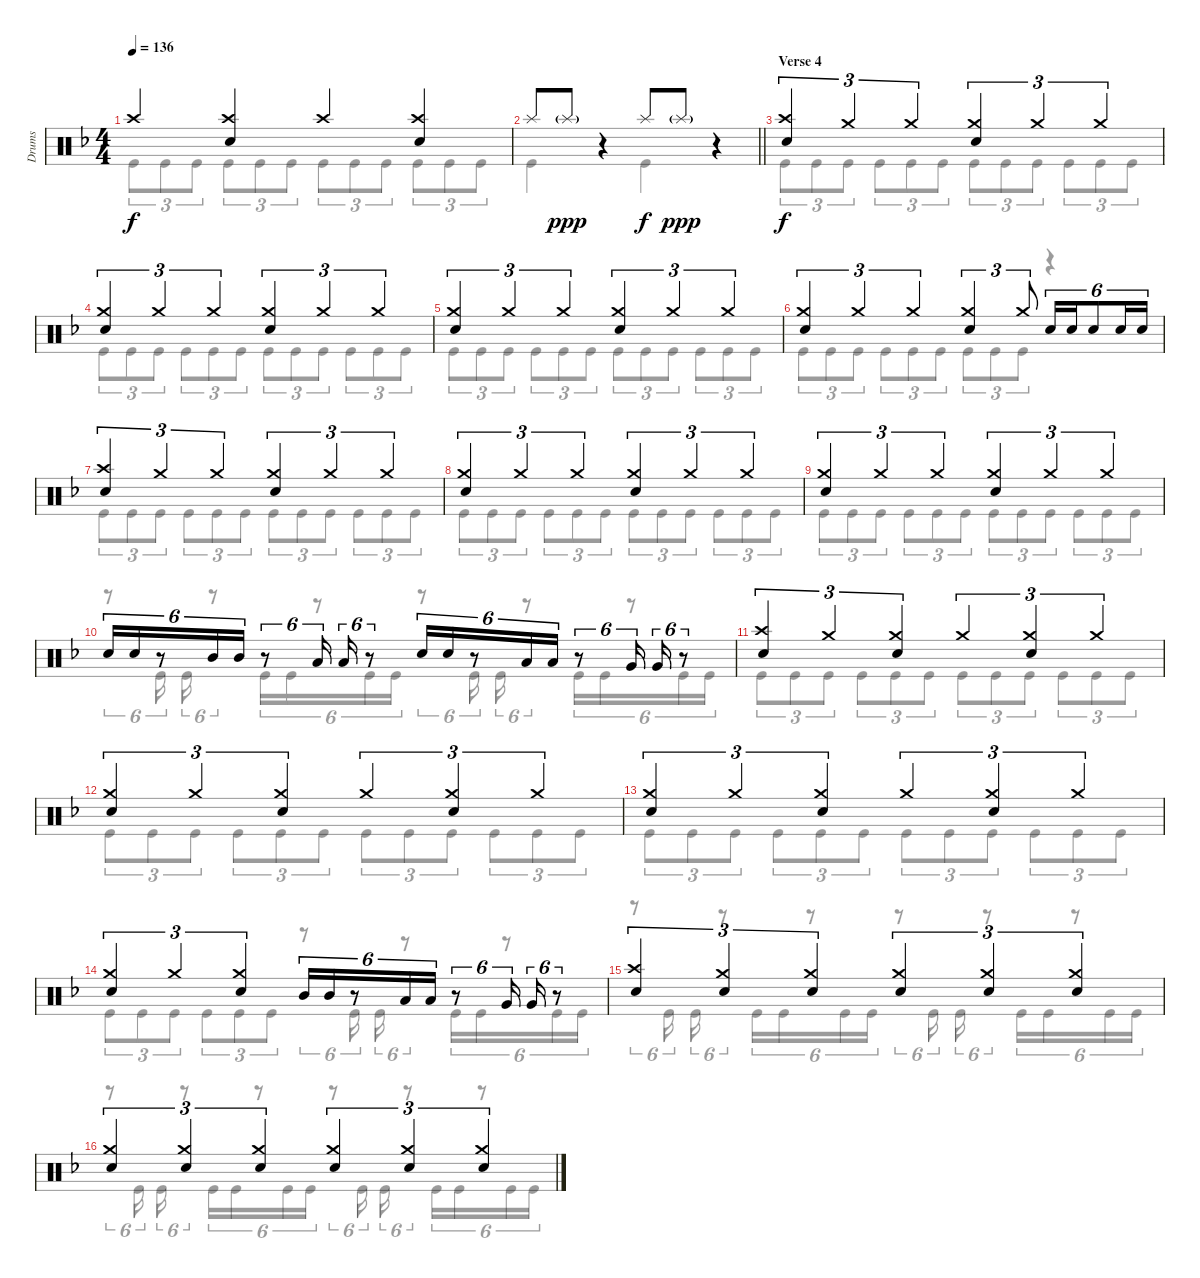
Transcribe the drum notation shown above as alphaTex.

\track ("Drums" "Drums") {instrument percussion}
\staff {score}
\articulation defaults
\voice
\ts (4 4)
\tempo 136
\clef neutral
\ks dminor "Crash high (hit)".4{dy f}
("Crash high (hit)" "Electric Snare (hit)").4 "Crash high (hit)".4 ("Crash high (hit)" "Electric Snare (hit)").4 |
\barLineRight lightlight "Splash (hit)".8 "Splash (hit)"{g}.8{dy ppp}
r.4 "Splash (hit)".8{dy f} "Splash (hit)"{g}.8{dy ppp} r.4 |
\section ("" "Verse 4")
("Crash high (hit)" "Electric Snare (hit)").4{tu (3 2) dy f} "Crash medium (hit)".4{tu (3 2)} "Crash medium (hit)".4{tu (3 2)} ("Crash medium (hit)" "Electric Snare (hit)").4{tu (3 2)} "Crash medium (hit)".4{tu (3 2)} "Crash medium (hit)".4{tu (3 2)} |
("Crash medium (hit)" "Electric Snare (hit)").4{tu (3 2)} "Crash medium (hit)".4{tu (3 2)} "Crash medium (hit)".4{tu (3 2)} ("Crash medium (hit)" "Electric Snare (hit)").4{tu (3 2)} "Crash medium (hit)".4{tu (3 2)} "Crash medium (hit)".4{tu (3 2)} |
("Crash medium (hit)" "Electric Snare (hit)").4{tu (3 2)} "Crash medium (hit)".4{tu (3 2)} "Crash medium (hit)".4{tu (3 2)} ("Crash medium (hit)" "Electric Snare (hit)").4{tu (3 2)} "Crash medium (hit)".4{tu (3 2)} "Crash medium (hit)".4{tu (3 2)} |
("Crash medium (hit)" "Electric Snare (hit)").4{tu (3 2)} "Crash medium (hit)".4{tu (3 2)} "Crash medium (hit)".4{tu (3 2)} ("Crash medium (hit)" "Electric Snare (hit)").4{tu (3 2)} "Crash medium (hit)".8{tu (3 2)} "Electric Snare (hit)".16{tu (6 4)} "Electric Snare (hit)".16{tu (6 4)} "Electric Snare (hit)".8{tu (6 4)} "Electric Snare (hit)".16{tu (6 4)} "Electric Snare (hit)".16{tu (6 4)} |
("Crash high (hit)" "Electric Snare (hit)").4{tu (3 2)} "Crash medium (hit)".4{tu (3 2)} "Crash medium (hit)".4{tu (3 2)} ("Crash medium (hit)" "Electric Snare (hit)").4{tu (3 2)} "Crash medium (hit)".4{tu (3 2)} "Crash medium (hit)".4{tu (3 2)} |
("Crash medium (hit)" "Electric Snare (hit)").4{tu (3 2)} "Crash medium (hit)".4{tu (3 2)} "Crash medium (hit)".4{tu (3 2)} ("Crash medium (hit)" "Electric Snare (hit)").4{tu (3 2)} "Crash medium (hit)".4{tu (3 2)} "Crash medium (hit)".4{tu (3 2)} |
("Crash medium (hit)" "Electric Snare (hit)").4{tu (3 2)} "Crash medium (hit)".4{tu (3 2)} "Crash medium (hit)".4{tu (3 2)} ("Crash medium (hit)" "Electric Snare (hit)").4{tu (3 2)} "Crash medium (hit)".4{tu (3 2)} "Crash medium (hit)".4{tu (3 2)} |
"Electric Snare (hit)".16{tu (6 4)} "Electric Snare (hit)".16{tu (6 4)} r.8{tu (6 4)} "Mid Tom (hit)".16{tu (6 4)} "Mid Tom (hit)".16{tu (6 4)} r.8{tu (6 4)} "Low Tom (hit)".16{tu (6 4)} "Low Tom (hit)".16{tu (6 4)} r.8{tu (6 4)} "Electric Snare (hit)".16{tu (6 4)} "Electric Snare (hit)".16{tu (6 4)} r.8{tu (6 4)} "Low Tom (hit)".16{tu (6 4)} "Low Tom (hit)".16{tu (6 4)} r.8{tu (6 4)} "Very Low Tom (hit)".16{tu (6 4)} "Very Low Tom (hit)".16{tu (6 4)} r.8{tu (6 4)} |
("Crash high (hit)" "Electric Snare (hit)").4{tu (3 2)} "Crash medium (hit)".4{tu (3 2)} ("Crash medium (hit)" "Electric Snare (hit)").4{tu (3 2)} "Crash medium (hit)".4{tu (3 2)} ("Crash medium (hit)" "Electric Snare (hit)").4{tu (3 2)} "Crash medium (hit)".4{tu (3 2)} |
("Crash medium (hit)" "Electric Snare (hit)").4{tu (3 2)} "Crash medium (hit)".4{tu (3 2)} ("Crash medium (hit)" "Electric Snare (hit)").4{tu (3 2)} "Crash medium (hit)".4{tu (3 2)} ("Crash medium (hit)" "Electric Snare (hit)").4{tu (3 2)} "Crash medium (hit)".4{tu (3 2)} |
("Crash medium (hit)" "Electric Snare (hit)").4{tu (3 2)} "Crash medium (hit)".4{tu (3 2)} ("Crash medium (hit)" "Electric Snare (hit)").4{tu (3 2)} "Crash medium (hit)".4{tu (3 2)} ("Crash medium (hit)" "Electric Snare (hit)").4{tu (3 2)} "Crash medium (hit)".4{tu (3 2)} |
("Crash medium (hit)" "Electric Snare (hit)").4{tu (3 2)} "Crash medium (hit)".4{tu (3 2)} ("Crash medium (hit)" "Electric Snare (hit)").4{tu (3 2)} "Mid Tom (hit)".16{tu (6 4)} "Mid Tom (hit)".16{tu (6 4)} r.8{tu (6 4)} "Low Tom (hit)".16{tu (6 4)} "Low Tom (hit)".16{tu (6 4)} r.8{tu (6 4)} "Very Low Tom (hit)".16{tu (6 4)} "Very Low Tom (hit)".16{tu (6 4)} r.8{tu (6 4)} |
("Crash high (hit)" "Electric Snare (hit)").4{tu (3 2)} ("Crash medium (hit)" "Electric Snare (hit)").4{tu (3 2)} ("Crash medium (hit)" "Electric Snare (hit)").4{tu (3 2)} ("Crash medium (hit)" "Electric Snare (hit)").4{tu (3 2)} ("Crash medium (hit)" "Electric Snare (hit)").4{tu (3 2)} ("Crash medium (hit)" "Electric Snare (hit)").4{tu (3 2)} |
("Crash medium (hit)" "Electric Snare (hit)").4{tu (3 2)} ("Crash medium (hit)" "Electric Snare (hit)").4{tu (3 2)} ("Crash medium (hit)" "Electric Snare (hit)").4{tu (3 2)} ("Crash medium (hit)" "Electric Snare (hit)").4{tu (3 2)} ("Crash medium (hit)" "Electric Snare (hit)").4{tu (3 2)} ("Crash medium (hit)" "Electric Snare (hit)").4{tu (3 2)}
\voice
\clef neutral
\ottava regular
\simile none
\ks dminor "Kick (hit)".8{tu (3 2) dy f} "Kick (hit)".8{tu (3 2)} "Kick (hit)".8{tu (3 2)} "Kick (hit)".8{tu (3 2)} "Kick (hit)".8{tu (3 2)} "Kick (hit)".8{tu (3 2)} "Kick (hit)".8{tu (3 2)} "Kick (hit)".8{tu (3 2)} "Kick (hit)".8{tu (3 2)} "Kick (hit)".8{tu (3 2)} "Kick (hit)".8{tu (3 2)} "Kick (hit)".8{tu (3 2)}
|
\barLineRight lightlight "Kick (hit)".4
r.4 "Kick (hit)".4 r.4 |
"Kick (hit)".8{tu (3 2)} "Kick (hit)".8{tu (3 2)} "Kick (hit)".8{tu (3 2)} "Kick (hit)".8{tu (3 2)} "Kick (hit)".8{tu (3 2)} "Kick (hit)".8{tu (3 2)} "Kick (hit)".8{tu (3 2)} "Kick (hit)".8{tu (3 2)} "Kick (hit)".8{tu (3 2)} "Kick (hit)".8{tu (3 2)} "Kick (hit)".8{tu (3 2)} "Kick (hit)".8{tu (3 2)} |
"Kick (hit)".8{tu (3 2)} "Kick (hit)".8{tu (3 2)} "Kick (hit)".8{tu (3 2)} "Kick (hit)".8{tu (3 2)} "Kick (hit)".8{tu (3 2)} "Kick (hit)".8{tu (3 2)} "Kick (hit)".8{tu (3 2)} "Kick (hit)".8{tu (3 2)} "Kick (hit)".8{tu (3 2)} "Kick (hit)".8{tu (3 2)} "Kick (hit)".8{tu (3 2)} "Kick (hit)".8{tu (3 2)} |
"Kick (hit)".8{tu (3 2)} "Kick (hit)".8{tu (3 2)} "Kick (hit)".8{tu (3 2)} "Kick (hit)".8{tu (3 2)} "Kick (hit)".8{tu (3 2)} "Kick (hit)".8{tu (3 2)} "Kick (hit)".8{tu (3 2)} "Kick (hit)".8{tu (3 2)} "Kick (hit)".8{tu (3 2)} "Kick (hit)".8{tu (3 2)} "Kick (hit)".8{tu (3 2)} "Kick (hit)".8{tu (3 2)} |
"Kick (hit)".8{tu (3 2)} "Kick (hit)".8{tu (3 2)} "Kick (hit)".8{tu (3 2)} "Kick (hit)".8{tu (3 2)} "Kick (hit)".8{tu (3 2)} "Kick (hit)".8{tu (3 2)} "Kick (hit)".8{tu (3 2)} "Kick (hit)".8{tu (3 2)} "Kick (hit)".8{tu (3 2)} r.4 |
"Kick (hit)".8{tu (3 2)} "Kick (hit)".8{tu (3 2)} "Kick (hit)".8{tu (3 2)} "Kick (hit)".8{tu (3 2)} "Kick (hit)".8{tu (3 2)} "Kick (hit)".8{tu (3 2)} "Kick (hit)".8{tu (3 2)} "Kick (hit)".8{tu (3 2)} "Kick (hit)".8{tu (3 2)} "Kick (hit)".8{tu (3 2)} "Kick (hit)".8{tu (3 2)} "Kick (hit)".8{tu (3 2)} |
"Kick (hit)".8{tu (3 2)} "Kick (hit)".8{tu (3 2)} "Kick (hit)".8{tu (3 2)} "Kick (hit)".8{tu (3 2)} "Kick (hit)".8{tu (3 2)} "Kick (hit)".8{tu (3 2)} "Kick (hit)".8{tu (3 2)} "Kick (hit)".8{tu (3 2)} "Kick (hit)".8{tu (3 2)} "Kick (hit)".8{tu (3 2)} "Kick (hit)".8{tu (3 2)} "Kick (hit)".8{tu (3 2)} |
"Kick (hit)".8{tu (3 2)} "Kick (hit)".8{tu (3 2)} "Kick (hit)".8{tu (3 2)} "Kick (hit)".8{tu (3 2)} "Kick (hit)".8{tu (3 2)} "Kick (hit)".8{tu (3 2)} "Kick (hit)".8{tu (3 2)} "Kick (hit)".8{tu (3 2)} "Kick (hit)".8{tu (3 2)} "Kick (hit)".8{tu (3 2)} "Kick (hit)".8{tu (3 2)} "Kick (hit)".8{tu (3 2)} |
r.8{tu (6 4)} "Kick (hit)".16{tu (6 4)} "Kick (hit)".16{tu (6 4)} r.8{tu (6 4)} "Kick (hit)".16{tu (6 4)} "Kick (hit)".16{tu (6 4)} r.8{tu (6 4)} "Kick (hit)".16{tu (6 4)} "Kick (hit)".16{tu (6 4)} r.8{tu (6 4)} "Kick (hit)".16{tu (6 4)} "Kick (hit)".16{tu (6 4)} r.8{tu (6 4)} "Kick (hit)".16{tu (6 4)} "Kick (hit)".16{tu (6 4)} r.8{tu (6 4)} "Kick (hit)".16{tu (6 4)} "Kick (hit)".16{tu (6 4)} |
"Kick (hit)".8{tu (3 2)} "Kick (hit)".8{tu (3 2)} "Kick (hit)".8{tu (3 2)} "Kick (hit)".8{tu (3 2)} "Kick (hit)".8{tu (3 2)} "Kick (hit)".8{tu (3 2)} "Kick (hit)".8{tu (3 2)} "Kick (hit)".8{tu (3 2)} "Kick (hit)".8{tu (3 2)} "Kick (hit)".8{tu (3 2)} "Kick (hit)".8{tu (3 2)} "Kick (hit)".8{tu (3 2)} |
"Kick (hit)".8{tu (3 2)} "Kick (hit)".8{tu (3 2)} "Kick (hit)".8{tu (3 2)} "Kick (hit)".8{tu (3 2)} "Kick (hit)".8{tu (3 2)} "Kick (hit)".8{tu (3 2)} "Kick (hit)".8{tu (3 2)} "Kick (hit)".8{tu (3 2)} "Kick (hit)".8{tu (3 2)} "Kick (hit)".8{tu (3 2)} "Kick (hit)".8{tu (3 2)} "Kick (hit)".8{tu (3 2)} |
"Kick (hit)".8{tu (3 2)} "Kick (hit)".8{tu (3 2)} "Kick (hit)".8{tu (3 2)} "Kick (hit)".8{tu (3 2)} "Kick (hit)".8{tu (3 2)} "Kick (hit)".8{tu (3 2)} "Kick (hit)".8{tu (3 2)} "Kick (hit)".8{tu (3 2)} "Kick (hit)".8{tu (3 2)} "Kick (hit)".8{tu (3 2)} "Kick (hit)".8{tu (3 2)} "Kick (hit)".8{tu (3 2)} |
"Kick (hit)".8{tu (3 2)} "Kick (hit)".8{tu (3 2)} "Kick (hit)".8{tu (3 2)} "Kick (hit)".8{tu (3 2)} "Kick (hit)".8{tu (3 2)} "Kick (hit)".8{tu (3 2)} r.8{tu (6 4)} "Kick (hit)".16{tu (6 4)} "Kick (hit)".16{tu (6 4)} r.8{tu (6 4)} "Kick (hit)".16{tu (6 4)} "Kick (hit)".16{tu (6 4)} r.8{tu (6 4)} "Kick (hit)".16{tu (6 4)} "Kick (hit)".16{tu (6 4)} |
r.8{tu (6 4)} "Kick (hit)".16{tu (6 4)} "Kick (hit)".16{tu (6 4)} r.8{tu (6 4)} "Kick (hit)".16{tu (6 4)} "Kick (hit)".16{tu (6 4)} r.8{tu (6 4)} "Kick (hit)".16{tu (6 4)} "Kick (hit)".16{tu (6 4)} r.8{tu (6 4)} "Kick (hit)".16{tu (6 4)} "Kick (hit)".16{tu (6 4)} r.8{tu (6 4)} "Kick (hit)".16{tu (6 4)} "Kick (hit)".16{tu (6 4)} r.8{tu (6 4)} "Kick (hit)".16{tu (6 4)} "Kick (hit)".16{tu (6 4)} |
r.8{tu (6 4)} "Kick (hit)".16{tu (6 4)} "Kick (hit)".16{tu (6 4)} r.8{tu (6 4)} "Kick (hit)".16{tu (6 4)} "Kick (hit)".16{tu (6 4)} r.8{tu (6 4)} "Kick (hit)".16{tu (6 4)} "Kick (hit)".16{tu (6 4)} r.8{tu (6 4)} "Kick (hit)".16{tu (6 4)} "Kick (hit)".16{tu (6 4)} r.8{tu (6 4)} "Kick (hit)".16{tu (6 4)} "Kick (hit)".16{tu (6 4)} r.8{tu (6 4)} "Kick (hit)".16{tu (6 4)} "Kick (hit)".16{tu (6 4)}
